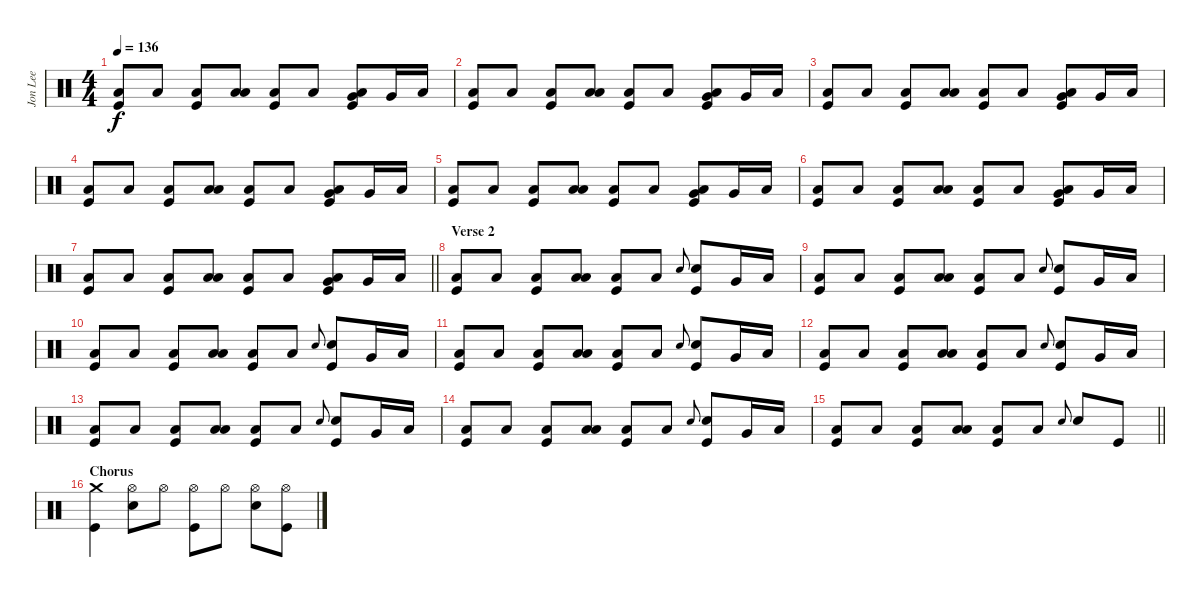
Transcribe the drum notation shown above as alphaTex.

\track ("Jon Lee" "Jon Lee") {instrument percussion}
\staff {score}
\articulation defaults
\ts (4 4)
\tempo 136
\clef neutral
\ks c
("Low Floor Tom (hit)" "Kick (hit)").8{dy f} "Low Floor Tom (hit)".8 ("Low Floor Tom (hit)" "Kick (hit)").8 ("Low Floor Tom (hit)" "Low Tom (hit)").8 ("Low Floor Tom (hit)" "Kick (hit)").8 "Low Floor Tom (hit)".8 ("Low Floor Tom (hit)" "Very Low Tom (hit)" "Kick (hit)").8 "Very Low Tom (hit)".16 "Low Tom (hit)".16 |
("Low Floor Tom (hit)" "Kick (hit)").8 "Low Floor Tom (hit)".8 ("Low Floor Tom (hit)" "Kick (hit)").8 ("Low Floor Tom (hit)" "Low Tom (hit)").8 ("Low Floor Tom (hit)" "Kick (hit)").8 "Low Floor Tom (hit)".8 ("Low Floor Tom (hit)" "Very Low Tom (hit)" "Kick (hit)").8 "Very Low Tom (hit)".16 "Low Tom (hit)".16 |
("Low Floor Tom (hit)" "Kick (hit)").8 "Low Floor Tom (hit)".8 ("Low Floor Tom (hit)" "Kick (hit)").8 ("Low Floor Tom (hit)" "Low Tom (hit)").8 ("Low Floor Tom (hit)" "Kick (hit)").8 "Low Floor Tom (hit)".8 ("Low Floor Tom (hit)" "Very Low Tom (hit)" "Kick (hit)").8 "Very Low Tom (hit)".16 "Low Tom (hit)".16 |
("Low Floor Tom (hit)" "Kick (hit)").8 "Low Floor Tom (hit)".8 ("Low Floor Tom (hit)" "Kick (hit)").8 ("Low Floor Tom (hit)" "Low Tom (hit)").8 ("Low Floor Tom (hit)" "Kick (hit)").8 "Low Floor Tom (hit)".8 ("Low Floor Tom (hit)" "Very Low Tom (hit)" "Kick (hit)").8 "Very Low Tom (hit)".16 "Low Tom (hit)".16 |
("Low Floor Tom (hit)" "Kick (hit)").8 "Low Floor Tom (hit)".8 ("Low Floor Tom (hit)" "Kick (hit)").8 ("Low Floor Tom (hit)" "Low Tom (hit)").8 ("Low Floor Tom (hit)" "Kick (hit)").8 "Low Floor Tom (hit)".8 ("Low Floor Tom (hit)" "Very Low Tom (hit)" "Kick (hit)").8 "Very Low Tom (hit)".16 "Low Tom (hit)".16 |
("Low Floor Tom (hit)" "Kick (hit)").8 "Low Floor Tom (hit)".8 ("Low Floor Tom (hit)" "Kick (hit)").8 ("Low Floor Tom (hit)" "Low Tom (hit)").8 ("Low Floor Tom (hit)" "Kick (hit)").8 "Low Floor Tom (hit)".8 ("Low Floor Tom (hit)" "Very Low Tom (hit)" "Kick (hit)").8 "Very Low Tom (hit)".16 "Low Tom (hit)".16 |
\barLineRight lightlight
("Low Floor Tom (hit)" "Kick (hit)").8 "Low Floor Tom (hit)".8 ("Low Floor Tom (hit)" "Kick (hit)").8 ("Low Floor Tom (hit)" "Low Tom (hit)").8 ("Low Floor Tom (hit)" "Kick (hit)").8 "Low Floor Tom (hit)".8 ("Low Floor Tom (hit)" "Very Low Tom (hit)" "Kick (hit)").8 "Very Low Tom (hit)".16 "Low Tom (hit)".16 |
\section ("" "Verse 2")
("Low Floor Tom (hit)" "Kick (hit)").8 "Low Floor Tom (hit)".8 ("Low Floor Tom (hit)" "Kick (hit)").8 ("Low Floor Tom (hit)" "Low Tom (hit)").8 ("Low Floor Tom (hit)" "Kick (hit)").8 "Low Floor Tom (hit)".8 "Electric Snare (hit)".8{gr onbeat} ("Electric Snare (hit)" "Kick (hit)").8 "Very Low Tom (hit)".16 "Low Tom (hit)".16 |
("Low Floor Tom (hit)" "Kick (hit)").8 "Low Floor Tom (hit)".8 ("Low Floor Tom (hit)" "Kick (hit)").8 ("Low Floor Tom (hit)" "Low Tom (hit)").8 ("Low Floor Tom (hit)" "Kick (hit)").8 "Low Floor Tom (hit)".8 "Electric Snare (hit)".8{gr onbeat} ("Electric Snare (hit)" "Kick (hit)").8 "Very Low Tom (hit)".16 "Low Tom (hit)".16 |
("Low Floor Tom (hit)" "Kick (hit)").8 "Low Floor Tom (hit)".8 ("Low Floor Tom (hit)" "Kick (hit)").8 ("Low Floor Tom (hit)" "Low Tom (hit)").8 ("Low Floor Tom (hit)" "Kick (hit)").8 "Low Floor Tom (hit)".8 "Electric Snare (hit)".8{gr onbeat} ("Electric Snare (hit)" "Kick (hit)").8 "Very Low Tom (hit)".16 "Low Tom (hit)".16 |
("Low Floor Tom (hit)" "Kick (hit)").8 "Low Floor Tom (hit)".8 ("Low Floor Tom (hit)" "Kick (hit)").8 ("Low Floor Tom (hit)" "Low Tom (hit)").8 ("Low Floor Tom (hit)" "Kick (hit)").8 "Low Floor Tom (hit)".8 "Electric Snare (hit)".8{gr onbeat} ("Electric Snare (hit)" "Kick (hit)").8 "Very Low Tom (hit)".16 "Low Tom (hit)".16 |
("Low Floor Tom (hit)" "Kick (hit)").8 "Low Floor Tom (hit)".8 ("Low Floor Tom (hit)" "Kick (hit)").8 ("Low Floor Tom (hit)" "Low Tom (hit)").8 ("Low Floor Tom (hit)" "Kick (hit)").8 "Low Floor Tom (hit)".8 "Electric Snare (hit)".8{gr onbeat} ("Electric Snare (hit)" "Kick (hit)").8 "Very Low Tom (hit)".16 "Low Tom (hit)".16 |
("Low Floor Tom (hit)" "Kick (hit)").8 "Low Floor Tom (hit)".8 ("Low Floor Tom (hit)" "Kick (hit)").8 ("Low Floor Tom (hit)" "Low Tom (hit)").8 ("Low Floor Tom (hit)" "Kick (hit)").8 "Low Floor Tom (hit)".8 "Electric Snare (hit)".8{gr onbeat} ("Electric Snare (hit)" "Kick (hit)").8 "Very Low Tom (hit)".16 "Low Tom (hit)".16 |
("Low Floor Tom (hit)" "Kick (hit)").8 "Low Floor Tom (hit)".8 ("Low Floor Tom (hit)" "Kick (hit)").8 ("Low Floor Tom (hit)" "Low Tom (hit)").8 ("Low Floor Tom (hit)" "Kick (hit)").8 "Low Floor Tom (hit)".8 "Electric Snare (hit)".8{gr onbeat} ("Electric Snare (hit)" "Kick (hit)").8 "Very Low Tom (hit)".16 "Low Tom (hit)".16 |
\barLineRight lightlight
("Low Floor Tom (hit)" "Kick (hit)").8 "Low Floor Tom (hit)".8 ("Low Floor Tom (hit)" "Kick (hit)").8 ("Low Floor Tom (hit)" "Low Tom (hit)").8 ("Low Floor Tom (hit)" "Kick (hit)").8 "Low Floor Tom (hit)".8 "Electric Snare (hit)".8{gr onbeat} "Electric Snare (hit)".8 "Kick (hit)".8 |
\section ("" "Chorus")
("Crash medium (hit)" "Kick (hit)").4 ("Hi-Hat (open)" "Electric Snare (hit)").8 "Hi-Hat (open)".8 ("Hi-Hat (open)" "Kick (hit)").8 "Hi-Hat (open)".8 ("Hi-Hat (open)" "Electric Snare (hit)").8 ("Hi-Hat (open)" "Kick (hit)").8
